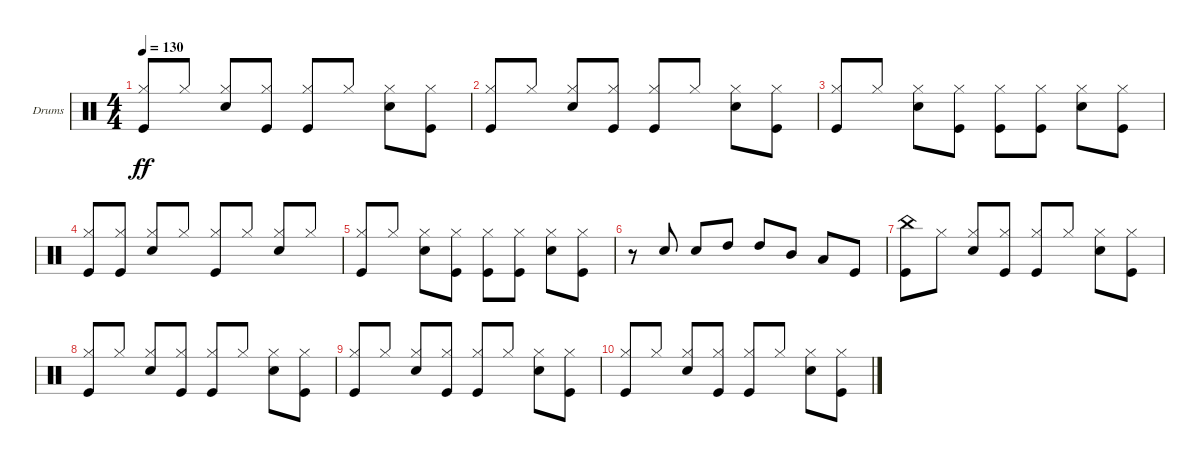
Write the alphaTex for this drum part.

\defaultSystemsLayout 4
\bracketExtendMode groupsimilarinstruments
\firstSystemTrackNameOrientation horizontal
\otherSystemsTrackNameOrientation horizontal
\track ("Drumkit" "Drums") {instrument percussion}
\staff {score}
\articulation defaults
\ts (4 4)
\tempo 130
\clef neutral
\scale
0.333333
\ks c
("Hi-Hat (closed)" "Kick (hit)").8{dy ff beam invert} "Hi-Hat (closed)".8 ("Hi-Hat (closed)" "Snare (hit) 2").8 ("Hi-Hat (closed)" "Kick (hit)").8 ("Hi-Hat (closed)" "Kick (hit)").8{beam invert} "Hi-Hat (closed)".8 ("Hi-Hat (closed)" "Snare (hit) 2").8 ("Hi-Hat (closed)" "Kick (hit)").8 |
\scale
0.333333 ("Hi-Hat (closed)" "Kick (hit)").8{beam invert} "Hi-Hat (closed)".8 ("Hi-Hat (closed)" "Snare (hit) 2").8 ("Hi-Hat (closed)" "Kick (hit)").8 ("Hi-Hat (closed)" "Kick (hit)").8{beam invert} "Hi-Hat (closed)".8 ("Hi-Hat (closed)" "Snare (hit) 2").8 ("Hi-Hat (closed)" "Kick (hit)").8 |
\scale
0.333333 ("Kick (hit)" "Hi-Hat (closed)").8{beam invert} "Hi-Hat (closed)".8 ("Snare (hit) 2" "Hi-Hat (closed)").8 ("Kick (hit)" "Hi-Hat (closed)").8 ("Kick (hit)" "Hi-Hat (closed)").8 ("Kick (hit)" "Hi-Hat (closed)").8 ("Snare (hit) 2" "Hi-Hat (closed)").8 ("Kick (hit)" "Hi-Hat (closed)").8 |
\scale
0.333333 ("Kick (hit)" "Hi-Hat (closed)").8 ("Kick (hit)" "Hi-Hat (closed)").8 ("Snare (hit) 2" "Hi-Hat (closed)").8{beam invert} "Hi-Hat (closed)".8 ("Hi-Hat (closed)" "Kick (hit)").8{beam invert} "Hi-Hat (closed)".8 ("Hi-Hat (closed)" "Snare (hit) 2").8{beam invert} "Hi-Hat (closed)".8 |
\scale
0.333333 ("Kick (hit)" "Hi-Hat (closed)").8{beam invert} "Hi-Hat (closed)".8 ("Snare (hit) 2" "Hi-Hat (closed)").8 ("Kick (hit)" "Hi-Hat (closed)").8 ("Kick (hit)" "Hi-Hat (closed)").8 ("Kick (hit)" "Hi-Hat (closed)").8 ("Snare (hit) 2" "Hi-Hat (closed)").8 ("Kick (hit)" "Hi-Hat (closed)").8 |
\scale
0.333333 r.8 "Snare (hit) 2".8{beam invert} "Snare (hit) 2".8{beam invert} "High Tom (hit)".8 "High Tom (hit)".8{beam invert} "Mid Tom (hit)".8 "Low Tom (hit)".8 "Kick (hit)".8 |
\scale
0.333333 ("Kick (hit)" "China (hit)").8 "Hi-Hat (closed)".8 ("Hi-Hat (closed)" "Snare (hit) 2").8 ("Hi-Hat (closed)" "Kick (hit)").8 ("Hi-Hat (closed)" "Kick (hit)").8{beam invert} "Hi-Hat (closed)".8 ("Hi-Hat (closed)" "Snare (hit) 2").8 ("Hi-Hat (closed)" "Kick (hit)").8 |
\scale
0.333333 ("Hi-Hat (closed)" "Kick (hit)").8{beam invert} "Hi-Hat (closed)".8 ("Hi-Hat (closed)" "Snare (hit) 2").8 ("Hi-Hat (closed)" "Kick (hit)").8 ("Hi-Hat (closed)" "Kick (hit)").8{beam invert} "Hi-Hat (closed)".8 ("Hi-Hat (closed)" "Snare (hit) 2").8 ("Hi-Hat (closed)" "Kick (hit)").8 |
("Hi-Hat (closed)" "Kick (hit)").8{beam invert} "Hi-Hat (closed)".8 ("Hi-Hat (closed)" "Snare (hit) 2").8 ("Hi-Hat (closed)" "Kick (hit)").8 ("Hi-Hat (closed)" "Kick (hit)").8{beam invert} "Hi-Hat (closed)".8 ("Hi-Hat (closed)" "Snare (hit) 2").8 ("Hi-Hat (closed)" "Kick (hit)").8 |
("Hi-Hat (closed)" "Kick (hit)").8{beam invert} "Hi-Hat (closed)".8 ("Hi-Hat (closed)" "Snare (hit) 2").8 ("Hi-Hat (closed)" "Kick (hit)").8 ("Hi-Hat (closed)" "Kick (hit)").8{beam invert} "Hi-Hat (closed)".8 ("Hi-Hat (closed)" "Snare (hit) 2").8 ("Hi-Hat (closed)" "Kick (hit)").8
